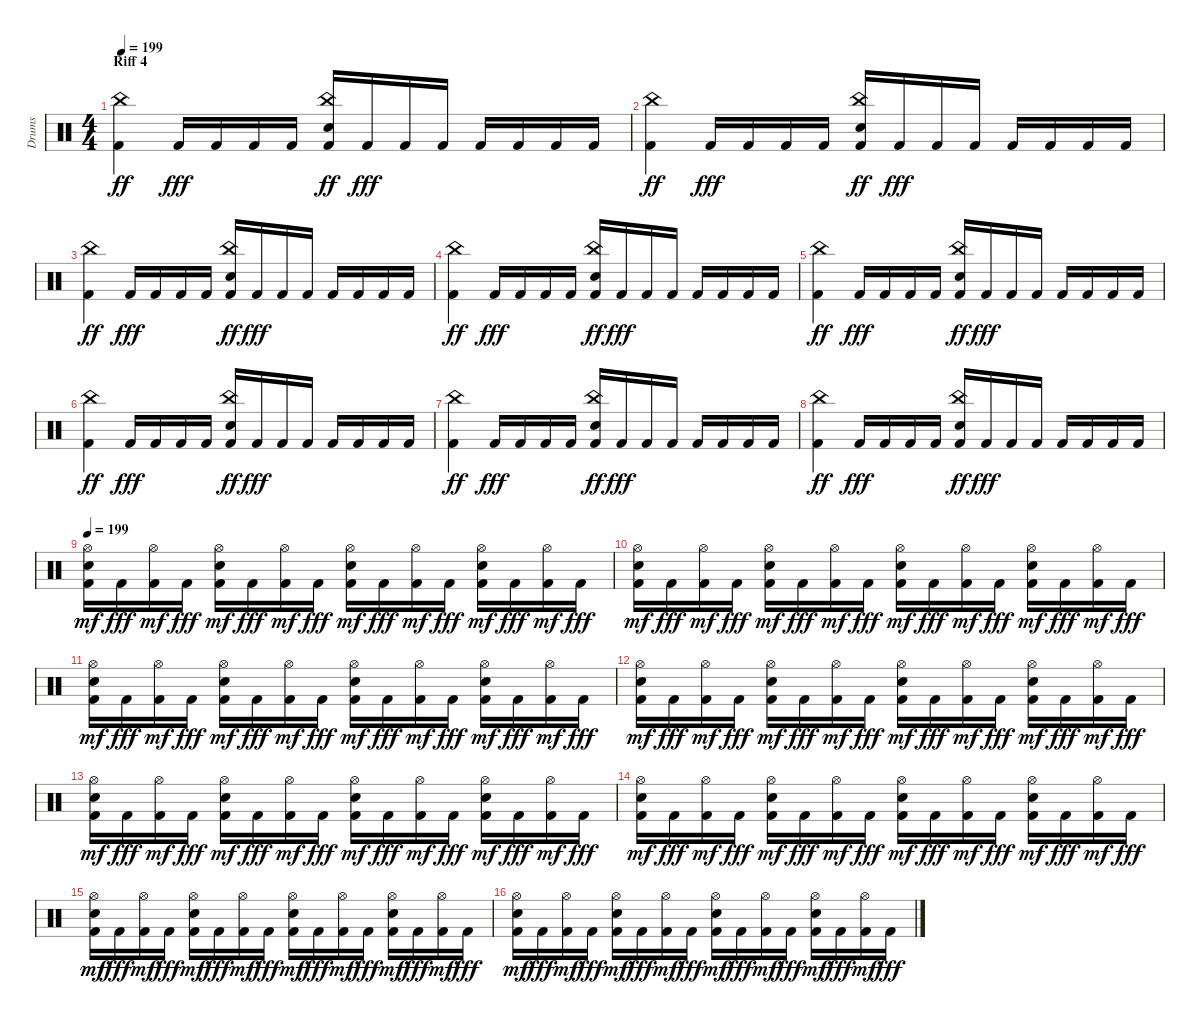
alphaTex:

\track ("Drums" "Drums") {instrument percussion}
\staff {score}
\articulation defaults
\ts (4 4)
\section ("" "Riff 4")
\tempo 199
\clef neutral
\ks c
("Kick (hit) 2" "China (hit)").4{dy ff} "Kick (hit) 2".16{dy fff} "Kick (hit) 2".16 "Kick (hit) 2".16 "Kick (hit) 2".16 ("Kick (hit) 2" "Snare (hit) 2" "China (hit)").16{dy ff} "Kick (hit) 2".16{dy fff} "Kick (hit) 2".16 "Kick (hit) 2".16 "Kick (hit) 2".16 "Kick (hit) 2".16 "Kick (hit) 2".16 "Kick (hit) 2".16 |
("Kick (hit) 2" "China (hit)").4{dy ff} "Kick (hit) 2".16{dy fff} "Kick (hit) 2".16 "Kick (hit) 2".16 "Kick (hit) 2".16 ("Kick (hit) 2" "Snare (hit) 2" "China (hit)").16{dy ff} "Kick (hit) 2".16{dy fff} "Kick (hit) 2".16 "Kick (hit) 2".16 "Kick (hit) 2".16 "Kick (hit) 2".16 "Kick (hit) 2".16 "Kick (hit) 2".16 |
("Kick (hit) 2" "China (hit)").4{dy ff} "Kick (hit) 2".16{dy fff} "Kick (hit) 2".16 "Kick (hit) 2".16 "Kick (hit) 2".16 ("Kick (hit) 2" "Snare (hit) 2" "China (hit)").16{dy ff} "Kick (hit) 2".16{dy fff} "Kick (hit) 2".16 "Kick (hit) 2".16 "Kick (hit) 2".16 "Kick (hit) 2".16 "Kick (hit) 2".16 "Kick (hit) 2".16 |
("Kick (hit) 2" "China (hit)").4{dy ff} "Kick (hit) 2".16{dy fff} "Kick (hit) 2".16 "Kick (hit) 2".16 "Kick (hit) 2".16 ("Kick (hit) 2" "Snare (hit) 2" "China (hit)").16{dy ff} "Kick (hit) 2".16{dy fff} "Kick (hit) 2".16 "Kick (hit) 2".16 "Kick (hit) 2".16 "Kick (hit) 2".16 "Kick (hit) 2".16 "Kick (hit) 2".16 |
("Kick (hit) 2" "China (hit)").4{dy ff} "Kick (hit) 2".16{dy fff} "Kick (hit) 2".16 "Kick (hit) 2".16 "Kick (hit) 2".16 ("Kick (hit) 2" "Snare (hit) 2" "China (hit)").16{dy ff} "Kick (hit) 2".16{dy fff} "Kick (hit) 2".16 "Kick (hit) 2".16 "Kick (hit) 2".16 "Kick (hit) 2".16 "Kick (hit) 2".16 "Kick (hit) 2".16 |
("Kick (hit) 2" "China (hit)").4{dy ff} "Kick (hit) 2".16{dy fff} "Kick (hit) 2".16 "Kick (hit) 2".16 "Kick (hit) 2".16 ("Kick (hit) 2" "Snare (hit) 2" "China (hit)").16{dy ff} "Kick (hit) 2".16{dy fff} "Kick (hit) 2".16 "Kick (hit) 2".16 "Kick (hit) 2".16 "Kick (hit) 2".16 "Kick (hit) 2".16 "Kick (hit) 2".16 |
("Kick (hit) 2" "China (hit)").4{dy ff} "Kick (hit) 2".16{dy fff} "Kick (hit) 2".16 "Kick (hit) 2".16 "Kick (hit) 2".16 ("Kick (hit) 2" "Snare (hit) 2" "China (hit)").16{dy ff} "Kick (hit) 2".16{dy fff} "Kick (hit) 2".16 "Kick (hit) 2".16 "Kick (hit) 2".16 "Kick (hit) 2".16 "Kick (hit) 2".16 "Kick (hit) 2".16 |
("Kick (hit) 2" "China (hit)").4{dy ff} "Kick (hit) 2".16{dy fff} "Kick (hit) 2".16 "Kick (hit) 2".16 "Kick (hit) 2".16 ("Kick (hit) 2" "Snare (hit) 2" "China (hit)").16{dy ff} "Kick (hit) 2".16{dy fff} "Kick (hit) 2".16 "Kick (hit) 2".16 "Kick (hit) 2".16 "Kick (hit) 2".16 "Kick (hit) 2".16 "Kick (hit) 2".16 |
\tempo 199
("Kick (hit) 2" "Snare (hit) 2" "Hi-Hat (open)").16{dy mf} "Kick (hit) 2".16{dy fff} ("Kick (hit) 2" "Hi-Hat (open)").16{dy mf} "Kick (hit) 2".16{dy fff} ("Kick (hit) 2" "Snare (hit) 2" "Hi-Hat (open)").16{dy mf} "Kick (hit) 2".16{dy fff} ("Kick (hit) 2" "Hi-Hat (open)").16{dy mf} "Kick (hit) 2".16{dy fff} ("Kick (hit) 2" "Snare (hit) 2" "Hi-Hat (open)").16{dy mf} "Kick (hit) 2".16{dy fff} ("Kick (hit) 2" "Hi-Hat (open)").16{dy mf} "Kick (hit) 2".16{dy fff} ("Kick (hit) 2" "Snare (hit) 2" "Hi-Hat (open)").16{dy mf} "Kick (hit) 2".16{dy fff} ("Kick (hit) 2" "Hi-Hat (open)").16{dy mf} "Kick (hit) 2".16{dy fff} |
("Kick (hit) 2" "Snare (hit) 2" "Hi-Hat (open)").16{dy mf} "Kick (hit) 2".16{dy fff} ("Kick (hit) 2" "Hi-Hat (open)").16{dy mf} "Kick (hit) 2".16{dy fff} ("Kick (hit) 2" "Snare (hit) 2" "Hi-Hat (open)").16{dy mf} "Kick (hit) 2".16{dy fff} ("Kick (hit) 2" "Hi-Hat (open)").16{dy mf} "Kick (hit) 2".16{dy fff} ("Kick (hit) 2" "Snare (hit) 2" "Hi-Hat (open)").16{dy mf} "Kick (hit) 2".16{dy fff} ("Kick (hit) 2" "Hi-Hat (open)").16{dy mf} "Kick (hit) 2".16{dy fff} ("Kick (hit) 2" "Snare (hit) 2" "Hi-Hat (open)").16{dy mf} "Kick (hit) 2".16{dy fff} ("Kick (hit) 2" "Hi-Hat (open)").16{dy mf} "Kick (hit) 2".16{dy fff} |
("Kick (hit) 2" "Snare (hit) 2" "Hi-Hat (open)").16{dy mf} "Kick (hit) 2".16{dy fff} ("Kick (hit) 2" "Hi-Hat (open)").16{dy mf} "Kick (hit) 2".16{dy fff} ("Kick (hit) 2" "Snare (hit) 2" "Hi-Hat (open)").16{dy mf} "Kick (hit) 2".16{dy fff} ("Kick (hit) 2" "Hi-Hat (open)").16{dy mf} "Kick (hit) 2".16{dy fff} ("Kick (hit) 2" "Snare (hit) 2" "Hi-Hat (open)").16{dy mf} "Kick (hit) 2".16{dy fff} ("Kick (hit) 2" "Hi-Hat (open)").16{dy mf} "Kick (hit) 2".16{dy fff} ("Kick (hit) 2" "Snare (hit) 2" "Hi-Hat (open)").16{dy mf} "Kick (hit) 2".16{dy fff} ("Kick (hit) 2" "Hi-Hat (open)").16{dy mf} "Kick (hit) 2".16{dy fff} |
("Kick (hit) 2" "Snare (hit) 2" "Hi-Hat (open)").16{dy mf} "Kick (hit) 2".16{dy fff} ("Kick (hit) 2" "Hi-Hat (open)").16{dy mf} "Kick (hit) 2".16{dy fff} ("Kick (hit) 2" "Snare (hit) 2" "Hi-Hat (open)").16{dy mf} "Kick (hit) 2".16{dy fff} ("Kick (hit) 2" "Hi-Hat (open)").16{dy mf} "Kick (hit) 2".16{dy fff} ("Kick (hit) 2" "Snare (hit) 2" "Hi-Hat (open)").16{dy mf} "Kick (hit) 2".16{dy fff} ("Kick (hit) 2" "Hi-Hat (open)").16{dy mf} "Kick (hit) 2".16{dy fff} ("Kick (hit) 2" "Snare (hit) 2" "Hi-Hat (open)").16{dy mf} "Kick (hit) 2".16{dy fff} ("Kick (hit) 2" "Hi-Hat (open)").16{dy mf} "Kick (hit) 2".16{dy fff} |
("Kick (hit) 2" "Snare (hit) 2" "Hi-Hat (open)").16{dy mf} "Kick (hit) 2".16{dy fff} ("Kick (hit) 2" "Hi-Hat (open)").16{dy mf} "Kick (hit) 2".16{dy fff} ("Kick (hit) 2" "Snare (hit) 2" "Hi-Hat (open)").16{dy mf} "Kick (hit) 2".16{dy fff} ("Kick (hit) 2" "Hi-Hat (open)").16{dy mf} "Kick (hit) 2".16{dy fff} ("Kick (hit) 2" "Snare (hit) 2" "Hi-Hat (open)").16{dy mf} "Kick (hit) 2".16{dy fff} ("Kick (hit) 2" "Hi-Hat (open)").16{dy mf} "Kick (hit) 2".16{dy fff} ("Kick (hit) 2" "Snare (hit) 2" "Hi-Hat (open)").16{dy mf} "Kick (hit) 2".16{dy fff} ("Kick (hit) 2" "Hi-Hat (open)").16{dy mf} "Kick (hit) 2".16{dy fff} |
("Kick (hit) 2" "Snare (hit) 2" "Hi-Hat (open)").16{dy mf} "Kick (hit) 2".16{dy fff} ("Kick (hit) 2" "Hi-Hat (open)").16{dy mf} "Kick (hit) 2".16{dy fff} ("Kick (hit) 2" "Snare (hit) 2" "Hi-Hat (open)").16{dy mf} "Kick (hit) 2".16{dy fff} ("Kick (hit) 2" "Hi-Hat (open)").16{dy mf} "Kick (hit) 2".16{dy fff} ("Kick (hit) 2" "Snare (hit) 2" "Hi-Hat (open)").16{dy mf} "Kick (hit) 2".16{dy fff} ("Kick (hit) 2" "Hi-Hat (open)").16{dy mf} "Kick (hit) 2".16{dy fff} ("Kick (hit) 2" "Snare (hit) 2" "Hi-Hat (open)").16{dy mf} "Kick (hit) 2".16{dy fff} ("Kick (hit) 2" "Hi-Hat (open)").16{dy mf} "Kick (hit) 2".16{dy fff} |
("Kick (hit) 2" "Snare (hit) 2" "Hi-Hat (open)").16{dy mf} "Kick (hit) 2".16{dy fff} ("Kick (hit) 2" "Hi-Hat (open)").16{dy mf} "Kick (hit) 2".16{dy fff} ("Kick (hit) 2" "Snare (hit) 2" "Hi-Hat (open)").16{dy mf} "Kick (hit) 2".16{dy fff} ("Kick (hit) 2" "Hi-Hat (open)").16{dy mf} "Kick (hit) 2".16{dy fff} ("Kick (hit) 2" "Snare (hit) 2" "Hi-Hat (open)").16{dy mf} "Kick (hit) 2".16{dy fff} ("Kick (hit) 2" "Hi-Hat (open)").16{dy mf} "Kick (hit) 2".16{dy fff} ("Kick (hit) 2" "Snare (hit) 2" "Hi-Hat (open)").16{dy mf} "Kick (hit) 2".16{dy fff} ("Kick (hit) 2" "Hi-Hat (open)").16{dy mf} "Kick (hit) 2".16{dy fff} |
("Kick (hit) 2" "Snare (hit) 2" "Hi-Hat (open)").16{dy mf} "Kick (hit) 2".16{dy fff} ("Kick (hit) 2" "Hi-Hat (open)").16{dy mf} "Kick (hit) 2".16{dy fff} ("Kick (hit) 2" "Snare (hit) 2" "Hi-Hat (open)").16{dy mf} "Kick (hit) 2".16{dy fff} ("Kick (hit) 2" "Hi-Hat (open)").16{dy mf} "Kick (hit) 2".16{dy fff} ("Kick (hit) 2" "Snare (hit) 2" "Hi-Hat (open)").16{dy mf} "Kick (hit) 2".16{dy fff} ("Kick (hit) 2" "Hi-Hat (open)").16{dy mf} "Kick (hit) 2".16{dy fff} ("Kick (hit) 2" "Snare (hit) 2" "Hi-Hat (open)").16{dy mf} "Kick (hit) 2".16{dy fff} ("Kick (hit) 2" "Hi-Hat (open)").16{dy mf} "Kick (hit) 2".16{dy fff}
